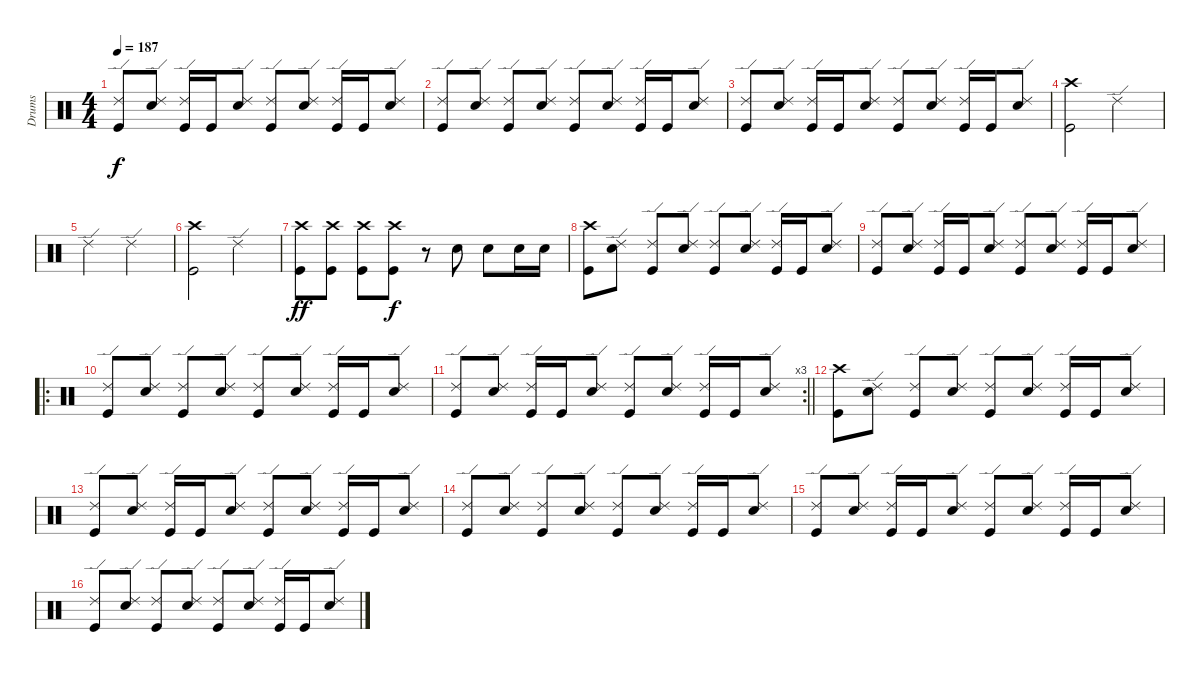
\track ("Drums" "Drums") {instrument percussion}
\staff {score}
\articulation defaults
\ts (4 4)
\tempo 187
\clef neutral
\ks c
("Ride (edge) 2" "Kick (hit)").8{dy f} ("Ride (edge) 2" "Snare (hit) 2").8 ("Ride (edge) 2" "Kick (hit)").16 "Kick (hit)".16 ("Ride (edge) 2" "Snare (hit) 2").8 ("Ride (edge) 2" "Kick (hit)").8 ("Ride (edge) 2" "Snare (hit) 2").8 ("Ride (edge) 2" "Kick (hit)").16 "Kick (hit)".16 ("Ride (edge) 2" "Snare (hit) 2").8 |
("Ride (edge) 2" "Kick (hit)").8 ("Ride (edge) 2" "Snare (hit) 2").8 ("Ride (edge) 2" "Kick (hit)").8 ("Ride (edge) 2" "Snare (hit) 2").8 ("Ride (edge) 2" "Kick (hit)").8 ("Ride (edge) 2" "Snare (hit) 2").8 ("Ride (edge) 2" "Kick (hit)").16 "Kick (hit)".16 ("Ride (edge) 2" "Snare (hit) 2").8 |
("Ride (edge) 2" "Kick (hit)").8 ("Ride (edge) 2" "Snare (hit) 2").8 ("Ride (edge) 2" "Kick (hit)").16 "Kick (hit)".16 ("Ride (edge) 2" "Snare (hit) 2").8 ("Ride (edge) 2" "Kick (hit)").8 ("Ride (edge) 2" "Snare (hit) 2").8 ("Ride (edge) 2" "Kick (hit)").16 "Kick (hit)".16 ("Ride (edge) 2" "Snare (hit) 2").8 |
("Crash high (hit)" "Kick (hit)").2 "Ride (edge) 2".2 |
"Ride (edge) 2".2 "Ride (edge) 2".2 |
("Crash high (hit)" "Kick (hit)").2 "Ride (edge) 2".2 |
("Crash high (hit)" "Kick (hit)").8{dy ff} ("Crash high (hit)" "Kick (hit)").8 ("Crash high (hit)" "Kick (hit)").8 ("Crash high (hit)" "Kick (hit)").8{dy f} r.8 "Snare (hit) 2".8 "Snare (hit) 2".8 "Snare (hit) 2".16 "Snare (hit) 2".16 |
("Crash high (hit)" "Kick (hit)").8 ("Ride (edge) 2" "Snare (hit) 2").8 ("Ride (edge) 2" "Kick (hit)").8 ("Ride (edge) 2" "Snare (hit) 2").8 ("Ride (edge) 2" "Kick (hit)").8 ("Ride (edge) 2" "Snare (hit) 2").8 ("Ride (edge) 2" "Kick (hit)").16 "Kick (hit)".16 ("Ride (edge) 2" "Snare (hit) 2").8 |
("Ride (edge) 2" "Kick (hit)").8 ("Ride (edge) 2" "Snare (hit) 2").8 ("Ride (edge) 2" "Kick (hit)").16 "Kick (hit)".16 ("Ride (edge) 2" "Snare (hit) 2").8 ("Ride (edge) 2" "Kick (hit)").8 ("Ride (edge) 2" "Snare (hit) 2").8 ("Ride (edge) 2" "Kick (hit)").16 "Kick (hit)".16 ("Ride (edge) 2" "Snare (hit) 2").8 |
\ro
("Ride (edge) 2" "Kick (hit)").8 ("Ride (edge) 2" "Snare (hit) 2").8 ("Ride (edge) 2" "Kick (hit)").8 ("Ride (edge) 2" "Snare (hit) 2").8 ("Ride (edge) 2" "Kick (hit)").8 ("Ride (edge) 2" "Snare (hit) 2").8 ("Ride (edge) 2" "Kick (hit)").16 "Kick (hit)".16 ("Ride (edge) 2" "Snare (hit) 2").8 |
\rc 3
\barLineRight lightlight
("Ride (edge) 2" "Kick (hit)").8 ("Ride (edge) 2" "Snare (hit) 2").8 ("Ride (edge) 2" "Kick (hit)").16 "Kick (hit)".16 ("Ride (edge) 2" "Snare (hit) 2").8 ("Ride (edge) 2" "Kick (hit)").8 ("Ride (edge) 2" "Snare (hit) 2").8 ("Ride (edge) 2" "Kick (hit)").16 "Kick (hit)".16 ("Ride (edge) 2" "Snare (hit) 2").8 |
("Crash high (hit)" "Kick (hit)").8 ("Ride (edge) 2" "Snare (hit) 2").8 ("Ride (edge) 2" "Kick (hit)").8 ("Ride (edge) 2" "Snare (hit) 2").8 ("Ride (edge) 2" "Kick (hit)").8 ("Ride (edge) 2" "Snare (hit) 2").8 ("Ride (edge) 2" "Kick (hit)").16 "Kick (hit)".16 ("Ride (edge) 2" "Snare (hit) 2").8 |
("Ride (edge) 2" "Kick (hit)").8 ("Ride (edge) 2" "Snare (hit) 2").8 ("Ride (edge) 2" "Kick (hit)").16 "Kick (hit)".16 ("Ride (edge) 2" "Snare (hit) 2").8 ("Ride (edge) 2" "Kick (hit)").8 ("Ride (edge) 2" "Snare (hit) 2").8 ("Ride (edge) 2" "Kick (hit)").16 "Kick (hit)".16 ("Ride (edge) 2" "Snare (hit) 2").8 |
("Ride (edge) 2" "Kick (hit)").8 ("Ride (edge) 2" "Snare (hit) 2").8 ("Ride (edge) 2" "Kick (hit)").8 ("Ride (edge) 2" "Snare (hit) 2").8 ("Ride (edge) 2" "Kick (hit)").8 ("Ride (edge) 2" "Snare (hit) 2").8 ("Ride (edge) 2" "Kick (hit)").16 "Kick (hit)".16 ("Ride (edge) 2" "Snare (hit) 2").8 |
("Ride (edge) 2" "Kick (hit)").8 ("Ride (edge) 2" "Snare (hit) 2").8 ("Ride (edge) 2" "Kick (hit)").16 "Kick (hit)".16 ("Ride (edge) 2" "Snare (hit) 2").8 ("Ride (edge) 2" "Kick (hit)").8 ("Ride (edge) 2" "Snare (hit) 2").8 ("Ride (edge) 2" "Kick (hit)").16 "Kick (hit)".16 ("Ride (edge) 2" "Snare (hit) 2").8 |
("Ride (edge) 2" "Kick (hit)").8 ("Ride (edge) 2" "Snare (hit) 2").8 ("Ride (edge) 2" "Kick (hit)").8 ("Ride (edge) 2" "Snare (hit) 2").8 ("Ride (edge) 2" "Kick (hit)").8 ("Ride (edge) 2" "Snare (hit) 2").8 ("Ride (edge) 2" "Kick (hit)").16 "Kick (hit)".16 ("Ride (edge) 2" "Snare (hit) 2").8
